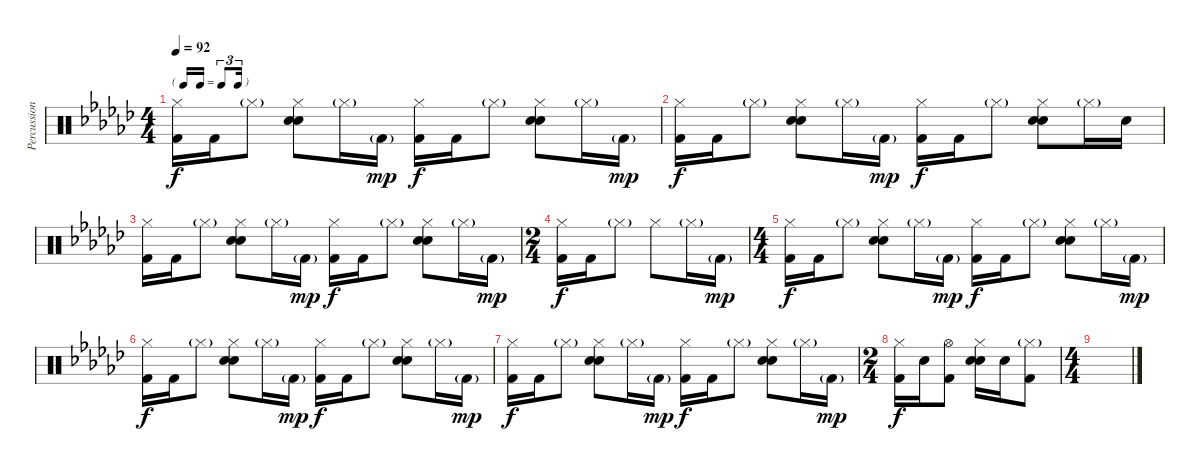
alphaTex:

\track ("Percussion" "Percussion") {instrument percussion}
\staff {score}
\articulation defaults
\ts (4 4)
\tf triplet16th
\tempo 92
\clef neutral
\ks ebminor
("Hi-Hat (closed)" "Kick (hit) 2").16{dy f} "Kick (hit) 2".16 "Hi-Hat (closed)"{g}.8 ("Hi-Hat (closed)" "Hand Clap (hit)" "Electric Snare (hit)").8 "Hi-Hat (closed)"{g}.16 "Kick (hit) 2"{g}.16{dy mp} ("Hi-Hat (closed)" "Kick (hit) 2").16{dy f} "Kick (hit) 2".16 "Hi-Hat (closed)"{g}.8 ("Hi-Hat (closed)" "Hand Clap (hit)" "Electric Snare (hit)").8 "Hi-Hat (closed)"{g}.16 "Kick (hit) 2"{g}.16{dy mp} |
("Hi-Hat (closed)" "Kick (hit) 2").16{dy f} "Kick (hit) 2".16 "Hi-Hat (closed)"{g}.8 ("Hi-Hat (closed)" "Hand Clap (hit)" "Electric Snare (hit)").8 "Hi-Hat (closed)"{g}.16 "Kick (hit) 2"{g}.16{dy mp} ("Hi-Hat (closed)" "Kick (hit) 2").16{dy f} "Kick (hit) 2".16 "Hi-Hat (closed)"{g}.8 ("Hi-Hat (closed)" "Hand Clap (hit)" "Electric Snare (hit)").8 "Hi-Hat (closed)"{g}.16 "Electric Snare (hit)".16 |
("Hi-Hat (closed)" "Kick (hit) 2").16 "Kick (hit) 2".16 "Hi-Hat (closed)"{g}.8 ("Hi-Hat (closed)" "Hand Clap (hit)" "Electric Snare (hit)").8 "Hi-Hat (closed)"{g}.16 "Kick (hit) 2"{g}.16{dy mp} ("Hi-Hat (closed)" "Kick (hit) 2").16{dy f} "Kick (hit) 2".16 "Hi-Hat (closed)"{g}.8 ("Hi-Hat (closed)" "Hand Clap (hit)" "Electric Snare (hit)").8 "Hi-Hat (closed)"{g}.16 "Kick (hit) 2"{g}.16{dy mp} |
\ts (2 4)
("Hi-Hat (closed)" "Kick (hit) 2").16{dy f} "Kick (hit) 2".16 "Hi-Hat (closed)"{g}.8 "Hi-Hat (closed)".8 "Hi-Hat (closed)"{g}.16 "Kick (hit) 2"{g}.16{dy mp} |
\ts (4 4)
("Hi-Hat (closed)" "Kick (hit) 2").16{dy f} "Kick (hit) 2".16 "Hi-Hat (closed)"{g}.8 ("Hi-Hat (closed)" "Hand Clap (hit)" "Electric Snare (hit)").8 "Hi-Hat (closed)"{g}.16 "Kick (hit) 2"{g}.16{dy mp} ("Hi-Hat (closed)" "Kick (hit) 2").16{dy f} "Kick (hit) 2".16 "Hi-Hat (closed)"{g}.8 ("Hi-Hat (closed)" "Hand Clap (hit)" "Electric Snare (hit)").8 "Hi-Hat (closed)"{g}.16 "Kick (hit) 2"{g}.16{dy mp} |
("Hi-Hat (closed)" "Kick (hit) 2").16{dy f} "Kick (hit) 2".16 "Hi-Hat (closed)"{g}.8 ("Hi-Hat (closed)" "Hand Clap (hit)" "Electric Snare (hit)").8 "Hi-Hat (closed)"{g}.16 "Kick (hit) 2"{g}.16{dy mp} ("Hi-Hat (closed)" "Kick (hit) 2").16{dy f} "Kick (hit) 2".16 "Hi-Hat (closed)"{g}.8 ("Hi-Hat (closed)" "Hand Clap (hit)" "Electric Snare (hit)").8 "Hi-Hat (closed)"{g}.16 "Kick (hit) 2"{g}.16{dy mp} |
("Hi-Hat (closed)" "Kick (hit) 2").16{dy f} "Kick (hit) 2".16 "Hi-Hat (closed)"{g}.8 ("Hi-Hat (closed)" "Hand Clap (hit)" "Electric Snare (hit)").8 "Hi-Hat (closed)"{g}.16 "Kick (hit) 2"{g}.16{dy mp} ("Hi-Hat (closed)" "Kick (hit) 2").16{dy f} "Kick (hit) 2".16 "Hi-Hat (closed)"{g}.8 ("Hi-Hat (closed)" "Hand Clap (hit)" "Electric Snare (hit)").8 "Hi-Hat (closed)"{g}.16 "Kick (hit) 2"{g}.16{dy mp} |
\ts (2 4)
("Hi-Hat (closed)" "Kick (hit) 2").16{dy f} "Electric Snare (hit)".16 ("Hi-Hat (open)" "Kick (hit) 2").8 ("Hi-Hat (closed)" "Hand Clap (hit)" "Electric Snare (hit)").16 "Electric Snare (hit)".16 ("Hi-Hat (closed)"{g} "Kick (hit) 2").8 |
\ts (4 4)
